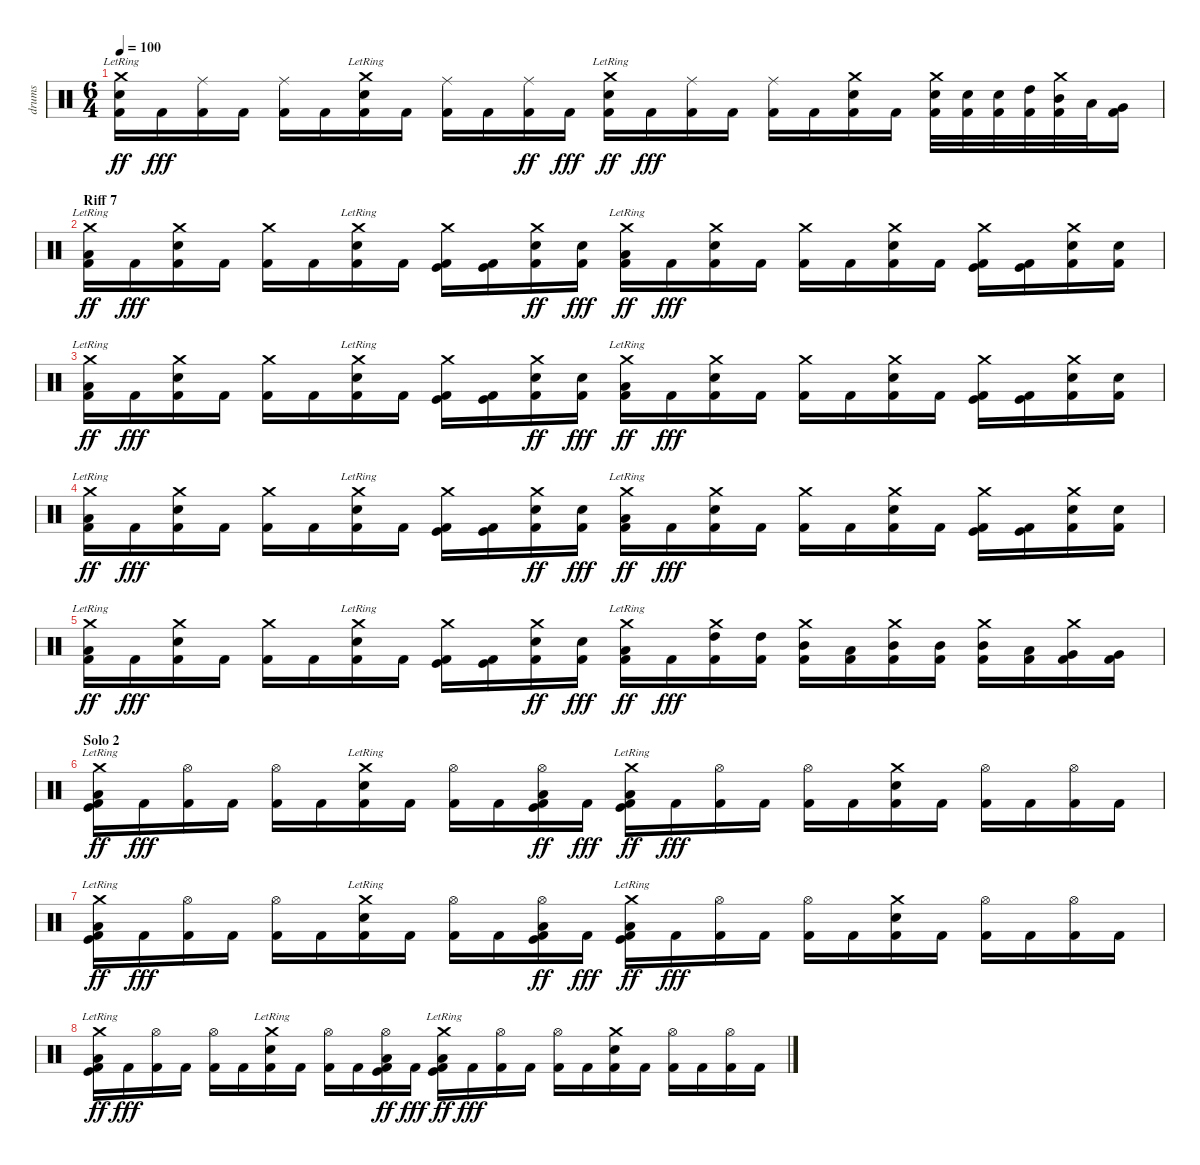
\track ("drums" "drums") {instrument percussion}
\staff {score}
\articulation defaults
\ts (6 4)
\tempo 100
\clef neutral
\ks c
("Crash medium (hit)"{lr} "Electric Snare (hit)" "Kick (hit) 2").16{dy ff} "Kick (hit) 2".16{dy fff} ("Ride (middle)" "Kick (hit) 2").16 "Kick (hit) 2".16 ("Ride (middle)" "Kick (hit) 2").16 "Kick (hit) 2".16 ("Crash medium (hit)"{lr} "Electric Snare (hit)" "Kick (hit) 2").16 "Kick (hit) 2".16 ("Ride (middle)" "Kick (hit) 2").16 "Kick (hit) 2".16 ("Ride (middle)" "Kick (hit) 2").16{dy ff} "Kick (hit) 2".16{dy fff} ("Crash medium (hit)"{lr} "Electric Snare (hit)" "Kick (hit) 2").16{dy ff} "Kick (hit) 2".16{dy fff} ("Ride (middle)" "Kick (hit) 2").16 "Kick (hit) 2".16 ("Ride (middle)" "Kick (hit) 2").16 "Kick (hit) 2".16 ("Crash medium (hit)" "Electric Snare (hit)" "Kick (hit) 2").16 "Kick (hit) 2".16 ("Crash medium (hit)" "Electric Snare (hit)" "Kick (hit) 2").32 ("Electric Snare (hit)" "Kick (hit) 2").32 ("Electric Snare (hit)" "Kick (hit) 2").32 ("High Tom (hit)" "Kick (hit) 2").32 ("Crash medium (hit)" "Mid Tom (hit)" "Kick (hit) 2").32 "Low Tom (hit)".32 ("Very Low Tom (hit)" "Kick (hit) 2").16 |
\section ("" "Riff 7")
("Crash medium (hit)"{lr} "Low Floor Tom (hit)" "Kick (hit) 2").16{dy ff} "Kick (hit) 2".16{dy fff} ("Crash medium (hit)" "Electric Snare (hit)" "Kick (hit) 2").16 "Kick (hit) 2".16 ("Crash medium (hit)" "Kick (hit) 2").16 "Kick (hit) 2".16 ("Crash medium (hit)"{lr} "Electric Snare (hit)" "Kick (hit) 2").16 "Kick (hit) 2".16 ("Crash medium (hit)" "Kick (hit)" "Kick (hit) 2").16 ("Kick (hit)" "Kick (hit) 2").16 ("Crash medium (hit)" "Electric Snare (hit)" "Kick (hit) 2").16{dy ff} ("Electric Snare (hit)" "Kick (hit) 2").16{dy fff} ("Crash medium (hit)"{lr} "Low Floor Tom (hit)" "Kick (hit) 2").16{dy ff} "Kick (hit) 2".16{dy fff} ("Crash medium (hit)" "Electric Snare (hit)" "Kick (hit) 2").16 "Kick (hit) 2".16 ("Crash medium (hit)" "Kick (hit) 2").16 "Kick (hit) 2".16 ("Crash medium (hit)" "Electric Snare (hit)" "Kick (hit) 2").16 "Kick (hit) 2".16 ("Crash medium (hit)" "Kick (hit)" "Kick (hit) 2").16 ("Kick (hit)" "Kick (hit) 2").16 ("Crash medium (hit)" "Electric Snare (hit)" "Kick (hit) 2").16 ("Electric Snare (hit)" "Kick (hit) 2").16 |
("Crash medium (hit)"{lr} "Low Floor Tom (hit)" "Kick (hit) 2").16{dy ff} "Kick (hit) 2".16{dy fff} ("Crash medium (hit)" "Electric Snare (hit)" "Kick (hit) 2").16 "Kick (hit) 2".16 ("Crash medium (hit)" "Kick (hit) 2").16 "Kick (hit) 2".16 ("Crash medium (hit)"{lr} "Electric Snare (hit)" "Kick (hit) 2").16 "Kick (hit) 2".16 ("Crash medium (hit)" "Kick (hit)" "Kick (hit) 2").16 ("Kick (hit)" "Kick (hit) 2").16 ("Crash medium (hit)" "Electric Snare (hit)" "Kick (hit) 2").16{dy ff} ("Electric Snare (hit)" "Kick (hit) 2").16{dy fff} ("Crash medium (hit)"{lr} "Low Floor Tom (hit)" "Kick (hit) 2").16{dy ff} "Kick (hit) 2".16{dy fff} ("Crash medium (hit)" "Electric Snare (hit)" "Kick (hit) 2").16 "Kick (hit) 2".16 ("Crash medium (hit)" "Kick (hit) 2").16 "Kick (hit) 2".16 ("Crash medium (hit)" "Electric Snare (hit)" "Kick (hit) 2").16 "Kick (hit) 2".16 ("Crash medium (hit)" "Kick (hit)" "Kick (hit) 2").16 ("Kick (hit)" "Kick (hit) 2").16 ("Crash medium (hit)" "Electric Snare (hit)" "Kick (hit) 2").16 ("Electric Snare (hit)" "Kick (hit) 2").16 |
("Crash medium (hit)"{lr} "Low Floor Tom (hit)" "Kick (hit) 2").16{dy ff} "Kick (hit) 2".16{dy fff} ("Crash medium (hit)" "Electric Snare (hit)" "Kick (hit) 2").16 "Kick (hit) 2".16 ("Crash medium (hit)" "Kick (hit) 2").16 "Kick (hit) 2".16 ("Crash medium (hit)"{lr} "Electric Snare (hit)" "Kick (hit) 2").16 "Kick (hit) 2".16 ("Crash medium (hit)" "Kick (hit)" "Kick (hit) 2").16 ("Kick (hit)" "Kick (hit) 2").16 ("Crash medium (hit)" "Electric Snare (hit)" "Kick (hit) 2").16{dy ff} ("Electric Snare (hit)" "Kick (hit) 2").16{dy fff} ("Crash medium (hit)"{lr} "Low Floor Tom (hit)" "Kick (hit) 2").16{dy ff} "Kick (hit) 2".16{dy fff} ("Crash medium (hit)" "Electric Snare (hit)" "Kick (hit) 2").16 "Kick (hit) 2".16 ("Crash medium (hit)" "Kick (hit) 2").16 "Kick (hit) 2".16 ("Crash medium (hit)" "Electric Snare (hit)" "Kick (hit) 2").16 "Kick (hit) 2".16 ("Crash medium (hit)" "Kick (hit)" "Kick (hit) 2").16 ("Kick (hit)" "Kick (hit) 2").16 ("Crash medium (hit)" "Electric Snare (hit)" "Kick (hit) 2").16 ("Electric Snare (hit)" "Kick (hit) 2").16 |
("Crash medium (hit)"{lr} "Low Floor Tom (hit)" "Kick (hit) 2").16{dy ff} "Kick (hit) 2".16{dy fff} ("Crash medium (hit)" "Electric Snare (hit)" "Kick (hit) 2").16 "Kick (hit) 2".16 ("Crash medium (hit)" "Kick (hit) 2").16 "Kick (hit) 2".16 ("Crash medium (hit)"{lr} "Electric Snare (hit)" "Kick (hit) 2").16 "Kick (hit) 2".16 ("Crash medium (hit)" "Kick (hit)" "Kick (hit) 2").16 ("Kick (hit)" "Kick (hit) 2").16 ("Crash medium (hit)" "Electric Snare (hit)" "Kick (hit) 2").16{dy ff} ("Electric Snare (hit)" "Kick (hit) 2").16{dy fff} ("Crash medium (hit)"{lr} "Low Floor Tom (hit)" "Kick (hit) 2").16{dy ff} "Kick (hit) 2".16{dy fff} ("Crash medium (hit)" "High Tom (hit)" "Kick (hit) 2").16 ("High Tom (hit)" "Kick (hit) 2").16 ("Crash medium (hit)" "Mid Tom (hit)" "Kick (hit) 2").16 ("Low Tom (hit)" "Kick (hit) 2").16 ("Crash medium (hit)" "Mid Tom (hit)" "Kick (hit) 2").16 ("Mid Tom (hit)" "Kick (hit) 2").16 ("Crash medium (hit)" "Mid Tom (hit)" "Kick (hit) 2").16 ("Low Tom (hit)" "Kick (hit) 2").16 ("Crash medium (hit)" "Very Low Tom (hit)" "Kick (hit) 2").16 ("Very Low Tom (hit)" "Kick (hit) 2").16 |
\section ("" "Solo 2")
("Crash medium (hit)"{lr} "Kick (hit)" "Low Floor Tom (hit)" "Kick (hit) 2").16{dy ff} "Kick (hit) 2".16{dy fff} ("Hi-Hat (open)" "Kick (hit) 2").16 "Kick (hit) 2".16 ("Hi-Hat (open)" "Kick (hit) 2").16 "Kick (hit) 2".16 ("Crash medium (hit)"{lr} "Electric Snare (hit)" "Kick (hit) 2").16 "Kick (hit) 2".16 ("Hi-Hat (open)" "Kick (hit) 2").16 "Kick (hit) 2".16 ("Hi-Hat (open)" "Kick (hit)" "Low Floor Tom (hit)" "Kick (hit) 2").16{dy ff} "Kick (hit) 2".16{dy fff} ("Crash medium (hit)"{lr} "Kick (hit)" "Low Floor Tom (hit)" "Kick (hit) 2").16{dy ff} "Kick (hit) 2".16{dy fff} ("Hi-Hat (open)" "Kick (hit) 2").16 "Kick (hit) 2".16 ("Hi-Hat (open)" "Kick (hit) 2").16 "Kick (hit) 2".16 ("Crash medium (hit)" "Electric Snare (hit)" "Kick (hit) 2").16 "Kick (hit) 2".16 ("Hi-Hat (open)" "Kick (hit) 2").16 "Kick (hit) 2".16 ("Hi-Hat (open)" "Kick (hit) 2").16 "Kick (hit) 2".16 |
("Crash medium (hit)"{lr} "Kick (hit)" "Low Floor Tom (hit)" "Kick (hit) 2").16{dy ff} "Kick (hit) 2".16{dy fff} ("Hi-Hat (open)" "Kick (hit) 2").16 "Kick (hit) 2".16 ("Hi-Hat (open)" "Kick (hit) 2").16 "Kick (hit) 2".16 ("Crash medium (hit)"{lr} "Electric Snare (hit)" "Kick (hit) 2").16 "Kick (hit) 2".16 ("Hi-Hat (open)" "Kick (hit) 2").16 "Kick (hit) 2".16 ("Hi-Hat (open)" "Kick (hit)" "Low Floor Tom (hit)" "Kick (hit) 2").16{dy ff} "Kick (hit) 2".16{dy fff} ("Crash medium (hit)"{lr} "Kick (hit)" "Low Floor Tom (hit)" "Kick (hit) 2").16{dy ff} "Kick (hit) 2".16{dy fff} ("Hi-Hat (open)" "Kick (hit) 2").16 "Kick (hit) 2".16 ("Hi-Hat (open)" "Kick (hit) 2").16 "Kick (hit) 2".16 ("Crash medium (hit)" "Electric Snare (hit)" "Kick (hit) 2").16 "Kick (hit) 2".16 ("Hi-Hat (open)" "Kick (hit) 2").16 "Kick (hit) 2".16 ("Hi-Hat (open)" "Kick (hit) 2").16 "Kick (hit) 2".16 |
("Crash medium (hit)"{lr} "Kick (hit)" "Low Floor Tom (hit)" "Kick (hit) 2").16{dy ff} "Kick (hit) 2".16{dy fff} ("Hi-Hat (open)" "Kick (hit) 2").16 "Kick (hit) 2".16 ("Hi-Hat (open)" "Kick (hit) 2").16 "Kick (hit) 2".16 ("Crash medium (hit)"{lr} "Electric Snare (hit)" "Kick (hit) 2").16 "Kick (hit) 2".16 ("Hi-Hat (open)" "Kick (hit) 2").16 "Kick (hit) 2".16 ("Hi-Hat (open)" "Kick (hit)" "Low Floor Tom (hit)" "Kick (hit) 2").16{dy ff} "Kick (hit) 2".16{dy fff} ("Crash medium (hit)"{lr} "Kick (hit)" "Low Floor Tom (hit)" "Kick (hit) 2").16{dy ff} "Kick (hit) 2".16{dy fff} ("Hi-Hat (open)" "Kick (hit) 2").16 "Kick (hit) 2".16 ("Hi-Hat (open)" "Kick (hit) 2").16 "Kick (hit) 2".16 ("Crash medium (hit)" "Electric Snare (hit)" "Kick (hit) 2").16 "Kick (hit) 2".16 ("Hi-Hat (open)" "Kick (hit) 2").16 "Kick (hit) 2".16 ("Hi-Hat (open)" "Kick (hit) 2").16 "Kick (hit) 2".16
